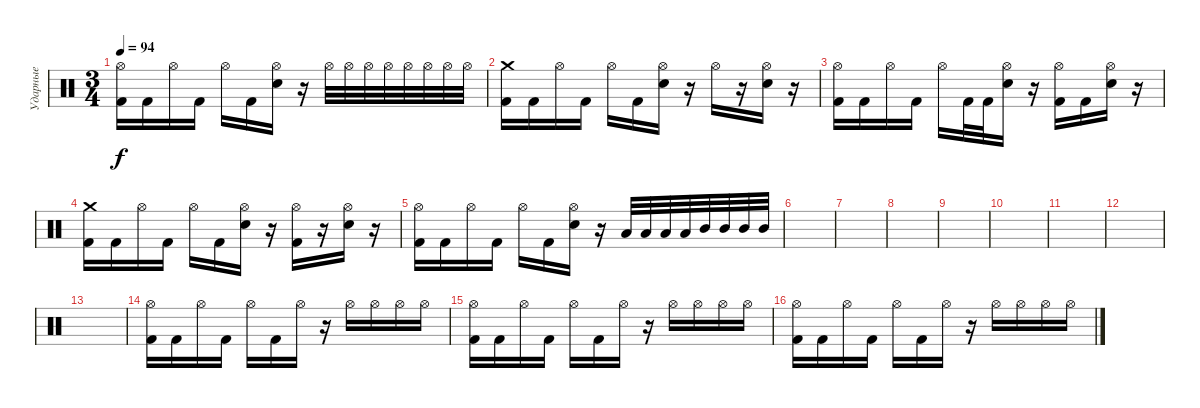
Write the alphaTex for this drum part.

\track ("Ударные" "Ударные") {instrument percussion}
\staff {score}
\articulation defaults
\ts (3 4)
\tempo 94
\clef neutral
\ks c
("Hi-Hat (open)" "Kick (hit) 2").16{dy f} "Kick (hit) 2".16 "Hi-Hat (open)".16 "Kick (hit) 2".16 "Hi-Hat (open)".16 "Kick (hit) 2".16 ("Hi-Hat (open)" "Electric Snare (hit)").16 r.16 "Hi-Hat (open)".32 "Hi-Hat (open)".32 "Hi-Hat (open)".32 "Hi-Hat (open)".32 "Hi-Hat (open)".32 "Hi-Hat (open)".32 "Hi-Hat (open)".32 "Hi-Hat (open)".32 |
("Crash medium (hit)" "Kick (hit) 2").16 "Kick (hit) 2".16 "Hi-Hat (open)".16 "Kick (hit) 2".16 "Hi-Hat (open)".16 "Kick (hit) 2".16 ("Hi-Hat (open)" "Electric Snare (hit)").16 r.16 "Hi-Hat (open)".16 r.16 ("Hi-Hat (open)" "Electric Snare (hit)").16 r.16 |
("Hi-Hat (open)" "Kick (hit) 2").16 "Kick (hit) 2".16 "Hi-Hat (open)".16 "Kick (hit) 2".16 "Hi-Hat (open)".16 "Kick (hit) 2".32 "Kick (hit) 2".32 ("Hi-Hat (open)" "Electric Snare (hit)").16 r.16 ("Hi-Hat (open)" "Kick (hit) 2").16 "Kick (hit) 2".16 ("Hi-Hat (open)" "Electric Snare (hit)").16 r.16 |
("Crash medium (hit)" "Kick (hit) 2").16 "Kick (hit) 2".16 "Hi-Hat (open)".16 "Kick (hit) 2".16 "Hi-Hat (open)".16 "Kick (hit) 2".16 ("Hi-Hat (open)" "Electric Snare (hit)").16 r.16 ("Hi-Hat (open)" "Kick (hit) 2").16 r.16 ("Hi-Hat (open)" "Electric Snare (hit)").16 r.16 |
("Hi-Hat (open)" "Kick (hit) 2").16 "Kick (hit) 2".16 "Hi-Hat (open)".16 "Kick (hit) 2".16 "Hi-Hat (open)".16 "Kick (hit) 2".16 ("Hi-Hat (open)" "Electric Snare (hit)").16 r.16 "Low Tom (hit)".32 "Low Tom (hit)".32 "Low Tom (hit)".32 "Low Tom (hit)".32 "Mid Tom (hit)".32 "Mid Tom (hit)".32 "Mid Tom (hit)".32 "Mid Tom (hit)".32 |
|
|
|
|
|
|
|
|
("Hi-Hat (open)" "Kick (hit) 2").16 "Kick (hit) 2".16 "Hi-Hat (open)".16 "Kick (hit) 2".16 "Hi-Hat (open)".16 "Kick (hit) 2".16 "Hi-Hat (open)".16 r.16 "Hi-Hat (open)".16 "Hi-Hat (open)".16 "Hi-Hat (open)".16 "Hi-Hat (open)".16 |
("Hi-Hat (open)" "Kick (hit) 2").16 "Kick (hit) 2".16 "Hi-Hat (open)".16 "Kick (hit) 2".16 "Hi-Hat (open)".16 "Kick (hit) 2".16 "Hi-Hat (open)".16 r.16 "Hi-Hat (open)".16 "Hi-Hat (open)".16 "Hi-Hat (open)".16 "Hi-Hat (open)".16 |
("Hi-Hat (open)" "Kick (hit) 2").16 "Kick (hit) 2".16 "Hi-Hat (open)".16 "Kick (hit) 2".16 "Hi-Hat (open)".16 "Kick (hit) 2".16 "Hi-Hat (open)".16 r.16 "Hi-Hat (open)".16 "Hi-Hat (open)".16 "Hi-Hat (open)".16 "Hi-Hat (open)".16
